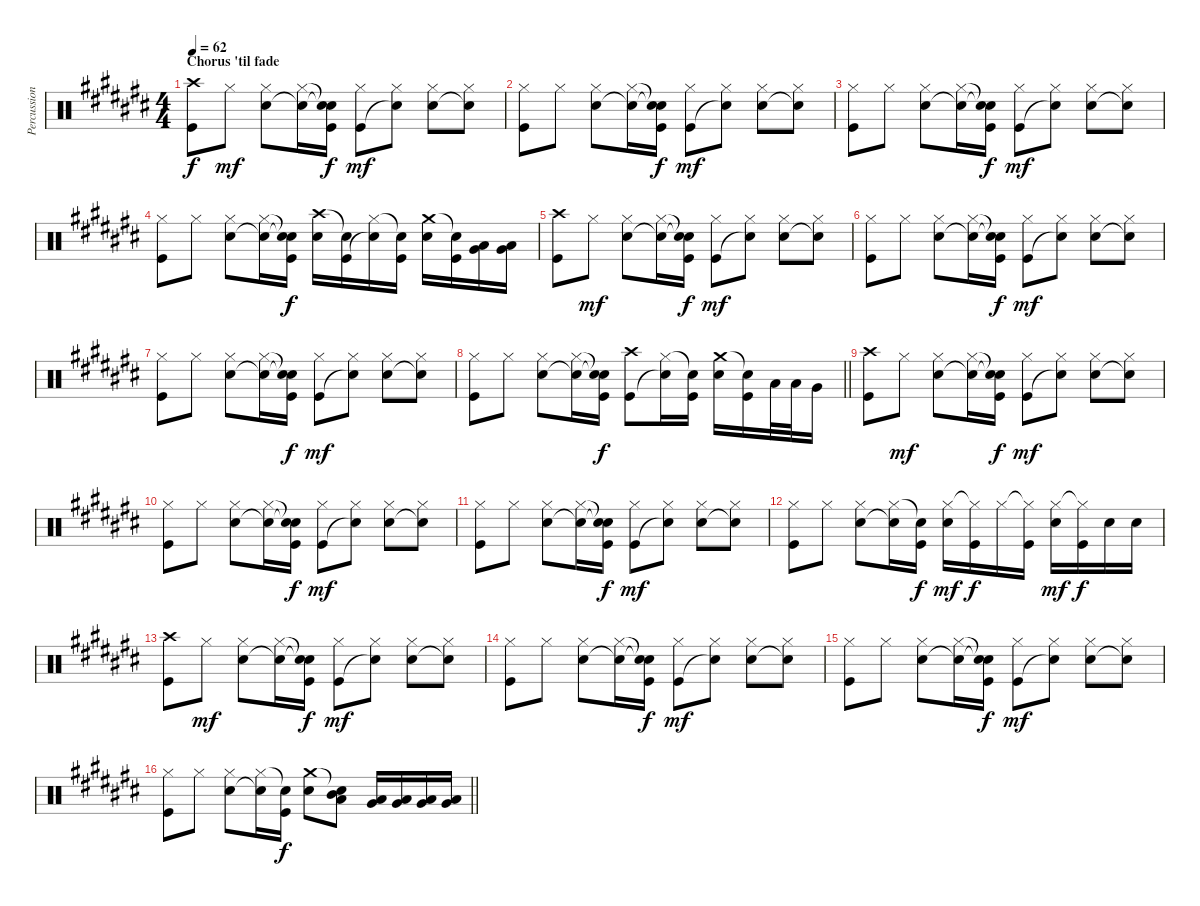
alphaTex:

\track ("Percussion" "Percussion") {instrument percussion}
\staff {score}
\articulation defaults
\ts (4 4)
\section ("" "Chorus 'til fade")
\tempo 62
\clef neutral
\ks c#
("Crash high (hit)" "Kick (hit)").8{dy f} "Hi-Hat (closed)".8{dy mf} ("Hi-Hat (closed)" "Snare (hit) 2").8 ("Hi-Hat (closed)" "Snare (hit)"{t}).16 ("Snare (hit)"{t} "Snare (hit)"{t} "Kick (hit)").16{dy f} ("Hi-Hat (closed)" "Kick (hit)").8{dy mf} ("Hi-Hat (closed)" "Snare (hit)"{t}).8 ("Hi-Hat (closed)" "Snare (hit) 2").8 ("Hi-Hat (closed)" "Snare (hit)"{t}).8 |
("Hi-Hat (closed)" "Kick (hit)").8 "Hi-Hat (closed)".8 ("Hi-Hat (closed)" "Snare (hit) 2").8 ("Hi-Hat (closed)" "Snare (hit)"{t}).16 ("Snare (hit)"{t} "Snare (hit)"{t} "Kick (hit)").16{dy f} ("Hi-Hat (closed)" "Kick (hit)").8{dy mf} ("Hi-Hat (closed)" "Snare (hit)"{t}).8 ("Hi-Hat (closed)" "Snare (hit) 2").8 ("Hi-Hat (closed)" "Snare (hit)"{t}).8 |
("Hi-Hat (closed)" "Kick (hit)").8 "Hi-Hat (closed)".8 ("Hi-Hat (closed)" "Snare (hit) 2").8 ("Hi-Hat (closed)" "Snare (hit)"{t}).16 ("Snare (hit)"{t} "Snare (hit)"{t} "Kick (hit)").16{dy f} ("Hi-Hat (closed)" "Kick (hit)").8{dy mf} ("Hi-Hat (closed)" "Snare (hit)"{t}).8 ("Hi-Hat (closed)" "Snare (hit) 2").8 ("Hi-Hat (closed)" "Snare (hit)"{t}).8 |
("Hi-Hat (closed)" "Kick (hit)").8 "Hi-Hat (closed)".8 ("Hi-Hat (closed)" "Snare (hit) 2").8 ("Hi-Hat (closed)" "Snare (hit)"{t}).16 ("Snare (hit)"{t} "Snare (hit)"{t} "Kick (hit)").16{dy f} ("Crash high (hit)" "Snare (hit) 2").16 ("Snare (hit)"{t} "Kick (hit)").16 ("Hi-Hat (closed)" "Snare (hit)"{t}).16 ("Snare (hit)"{t} "Kick (hit)").16 ("Crash medium (hit)" "Snare (hit) 2").16 ("Snare (hit)"{t} "Kick (hit)").16 ("Very Low Tom (hit)" "Low Tom (hit)").16 ("Very Low Tom (hit)" "Low Tom (hit)").16 |
("Crash high (hit)" "Kick (hit)").8 "Hi-Hat (closed)".8{dy mf} ("Hi-Hat (closed)" "Snare (hit) 2").8 ("Hi-Hat (closed)" "Snare (hit)"{t}).16 ("Snare (hit)"{t} "Snare (hit)"{t} "Kick (hit)").16{dy f} ("Hi-Hat (closed)" "Kick (hit)").8{dy mf} ("Hi-Hat (closed)" "Snare (hit)"{t}).8 ("Hi-Hat (closed)" "Snare (hit) 2").8 ("Hi-Hat (closed)" "Snare (hit)"{t}).8 |
("Hi-Hat (closed)" "Kick (hit)").8 "Hi-Hat (closed)".8 ("Hi-Hat (closed)" "Snare (hit) 2").8 ("Hi-Hat (closed)" "Snare (hit)"{t}).16 ("Snare (hit)"{t} "Snare (hit)"{t} "Kick (hit)").16{dy f} ("Hi-Hat (closed)" "Kick (hit)").8{dy mf} ("Hi-Hat (closed)" "Snare (hit)"{t}).8 ("Hi-Hat (closed)" "Snare (hit) 2").8 ("Hi-Hat (closed)" "Snare (hit)"{t}).8 |
("Hi-Hat (closed)" "Kick (hit)").8 "Hi-Hat (closed)".8 ("Hi-Hat (closed)" "Snare (hit) 2").8 ("Hi-Hat (closed)" "Snare (hit)"{t}).16 ("Snare (hit)"{t} "Snare (hit)"{t} "Kick (hit)").16{dy f} ("Hi-Hat (closed)" "Kick (hit)").8{dy mf} ("Hi-Hat (closed)" "Snare (hit)"{t}).8 ("Hi-Hat (closed)" "Snare (hit) 2").8 ("Hi-Hat (closed)" "Snare (hit)"{t}).8 |
\barLineRight lightlight
("Hi-Hat (closed)" "Kick (hit)").8 "Hi-Hat (closed)".8 ("Hi-Hat (closed)" "Snare (hit) 2").8 ("Hi-Hat (closed)" "Snare (hit)"{t}).16 ("Snare (hit)"{t} "Snare (hit)"{t} "Kick (hit)").16{dy f} ("Crash high (hit)" "Kick (hit)").8 ("Hi-Hat (closed)" "Snare (hit)"{t}).16 ("Snare (hit)"{t} "Kick (hit)").16 ("Crash medium (hit)" "Snare (hit) 2").16 ("Snare (hit)"{t} "Kick (hit)").16 "Low Tom (hit)".32 "Low Tom (hit)".32 "Very Low Tom (hit)".16 |
("Crash high (hit)" "Kick (hit)").8 "Hi-Hat (closed)".8{dy mf} ("Hi-Hat (closed)" "Snare (hit) 2").8 ("Hi-Hat (closed)" "Snare (hit)"{t}).16 ("Snare (hit)"{t} "Snare (hit)"{t} "Kick (hit)").16{dy f} ("Hi-Hat (closed)" "Kick (hit)").8{dy mf} ("Hi-Hat (closed)" "Snare (hit)"{t}).8 ("Hi-Hat (closed)" "Snare (hit) 2").8 ("Hi-Hat (closed)" "Snare (hit)"{t}).8 |
("Hi-Hat (closed)" "Kick (hit)").8 "Hi-Hat (closed)".8 ("Hi-Hat (closed)" "Snare (hit) 2").8 ("Hi-Hat (closed)" "Snare (hit)"{t}).16 ("Snare (hit)"{t} "Snare (hit)"{t} "Kick (hit)").16{dy f} ("Hi-Hat (closed)" "Kick (hit)").8{dy mf} ("Hi-Hat (closed)" "Snare (hit)"{t}).8 ("Hi-Hat (closed)" "Snare (hit) 2").8 ("Hi-Hat (closed)" "Snare (hit)"{t}).8 |
("Hi-Hat (closed)" "Kick (hit)").8 "Hi-Hat (closed)".8 ("Hi-Hat (closed)" "Snare (hit) 2").8 ("Hi-Hat (closed)" "Snare (hit)"{t}).16 ("Snare (hit)"{t} "Snare (hit)"{t} "Kick (hit)").16{dy f} ("Hi-Hat (closed)" "Kick (hit)").8{dy mf} ("Hi-Hat (closed)" "Snare (hit)"{t}).8 ("Hi-Hat (closed)" "Snare (hit) 2").8 ("Hi-Hat (closed)" "Snare (hit)"{t}).8 |
("Hi-Hat (closed)" "Kick (hit)").8 "Hi-Hat (closed)".8 ("Hi-Hat (closed)" "Snare (hit) 2").8 ("Hi-Hat (closed)" "Snare (hit)"{t}).16 ("Snare (hit)"{t} "Kick (hit)").16{dy f} ("Hi-Hat (closed)" "Snare (hit) 2").16{dy mf volume 14} ("Hi-Hat (closed)"{t} "Kick (hit)").16{dy f} "Hi-Hat (closed)".16 ("Hi-Hat (closed)"{t} "Kick (hit)").16 ("Hi-Hat (closed)" "Snare (hit) 2").16{dy mf} ("Hi-Hat (closed)"{t} "Kick (hit)").16{dy f} "Snare (hit) 2".16 "Snare (hit) 2".16 |
("Crash high (hit)" "Kick (hit)").8{volume 13} "Hi-Hat (closed)".8{dy mf} ("Hi-Hat (closed)" "Snare (hit) 2").8 ("Hi-Hat (closed)" "Snare (hit)"{t}).16 ("Snare (hit)"{t} "Snare (hit)"{t} "Kick (hit)").16{dy f} ("Hi-Hat (closed)" "Kick (hit)").8{dy mf volume 12} ("Hi-Hat (closed)" "Snare (hit)"{t}).8 ("Hi-Hat (closed)" "Snare (hit) 2").8 ("Hi-Hat (closed)" "Snare (hit)"{t}).8 |
("Hi-Hat (closed)" "Kick (hit)").8{volume 11} "Hi-Hat (closed)".8 ("Hi-Hat (closed)" "Snare (hit) 2").8 ("Hi-Hat (closed)" "Snare (hit)"{t}).16 ("Snare (hit)"{t} "Snare (hit)"{t} "Kick (hit)").16{dy f} ("Hi-Hat (closed)" "Kick (hit)").8{dy mf volume 10} ("Hi-Hat (closed)" "Snare (hit)"{t}).8 ("Hi-Hat (closed)" "Snare (hit) 2").8 ("Hi-Hat (closed)" "Snare (hit)"{t}).8 |
("Hi-Hat (closed)" "Kick (hit)").8{volume 9} "Hi-Hat (closed)".8 ("Hi-Hat (closed)" "Snare (hit) 2").8 ("Hi-Hat (closed)" "Snare (hit)"{t}).16 ("Snare (hit)"{t} "Snare (hit)"{t} "Kick (hit)").16{dy f} ("Hi-Hat (closed)" "Kick (hit)").8{dy mf volume 8} ("Hi-Hat (closed)" "Snare (hit)"{t}).8 ("Hi-Hat (closed)" "Snare (hit) 2").8 ("Hi-Hat (closed)" "Snare (hit)"{t}).8 |
\barLineRight lightlight
("Hi-Hat (closed)" "Kick (hit)").8{volume 7} "Hi-Hat (closed)".8 ("Hi-Hat (closed)" "Snare (hit) 2").8 ("Hi-Hat (closed)" "Snare (hit)"{t}).16 ("Snare (hit)"{t} "Kick (hit)").16{dy f} ("Crash medium (hit)" "Snare (hit) 2").8{volume 6} ("Snare (hit)"{t} "Low Tom (hit)" "Mid Tom (hit)").8 ("Very Low Tom (hit)" "Low Tom (hit)").16 ("Very Low Tom (hit)" "Low Tom (hit)").16 ("Low Floor Tom (hit)" "Very Low Tom (hit)").16 ("Low Floor Tom (hit)" "Very Low Tom (hit)").16
